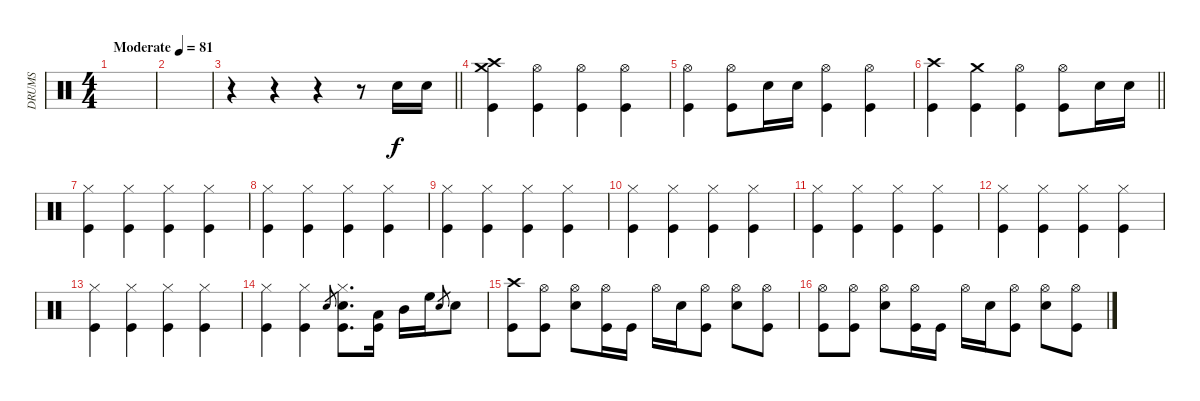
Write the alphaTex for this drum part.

\track ("DRUMS" "DRUMS") {instrument percussion}
\staff {score}
\articulation defaults
\ts (4 4)
\tempo (81 "Moderate")
\clef neutral
\ks c
|
|
\barLineRight lightlight
r.4 r.4 r.4 r.8 "Electric Snare (hit)".16 "Electric Snare (hit)".16 |
("Crash high (hit)" "Crash medium (hit)" "Kick (hit)").4 ("Hi-Hat (open)" "Kick (hit)").4 ("Hi-Hat (open)" "Kick (hit)").4 ("Hi-Hat (open)" "Kick (hit)").4 |
("Hi-Hat (open)" "Kick (hit)").4 ("Hi-Hat (open)" "Kick (hit)").8 "Electric Snare (hit)".16 "Electric Snare (hit)".16 ("Hi-Hat (open)" "Kick (hit)").4 ("Hi-Hat (open)" "Kick (hit)").4 |
\barLineRight lightlight
("Crash high (hit)" "Kick (hit)").4 ("Crash medium (hit)" "Kick (hit)").4 ("Hi-Hat (open)" "Kick (hit)").4 ("Hi-Hat (open)" "Kick (hit)").8 "Electric Snare (hit)".16 "Electric Snare (hit)".16 |
("Kick (hit)" "Hi-Hat (closed)").4 ("Kick (hit)" "Hi-Hat (closed)").4 ("Kick (hit)" "Hi-Hat (closed)").4 ("Kick (hit)" "Hi-Hat (closed)").4 |
("Kick (hit)" "Hi-Hat (closed)").4 ("Kick (hit)" "Hi-Hat (closed)").4 ("Kick (hit)" "Hi-Hat (closed)").4 ("Kick (hit)" "Hi-Hat (closed)").4 |
("Kick (hit)" "Hi-Hat (closed)").4 ("Kick (hit)" "Hi-Hat (closed)").4 ("Kick (hit)" "Hi-Hat (closed)").4 ("Kick (hit)" "Hi-Hat (closed)").4 |
("Kick (hit)" "Hi-Hat (closed)").4 ("Kick (hit)" "Hi-Hat (closed)").4 ("Kick (hit)" "Hi-Hat (closed)").4 ("Kick (hit)" "Hi-Hat (closed)").4 |
("Kick (hit)" "Hi-Hat (closed)").4 ("Kick (hit)" "Hi-Hat (closed)").4 ("Kick (hit)" "Hi-Hat (closed)").4 ("Kick (hit)" "Hi-Hat (closed)").4 |
("Kick (hit)" "Hi-Hat (closed)").4 ("Kick (hit)" "Hi-Hat (closed)").4 ("Kick (hit)" "Hi-Hat (closed)").4 ("Kick (hit)" "Hi-Hat (closed)").4 |
("Kick (hit)" "Hi-Hat (closed)").4 ("Kick (hit)" "Hi-Hat (closed)").4 ("Kick (hit)" "Hi-Hat (closed)").4 ("Kick (hit)" "Hi-Hat (closed)").4 |
("Kick (hit)" "Hi-Hat (closed)").4 ("Kick (hit)" "Hi-Hat (closed)").4 "Electric Snare (hit)".8{gr} ("Kick (hit)" "Hi-Hat (closed)" "Electric Snare (hit)").8{d} ("Low Tom (hit)" "Kick (hit)").16 "Mid Tom (hit)".16 "High Floor Tom (hit)".16 "Electric Snare (hit)".8{gr} "Electric Snare (hit)".8 |
("Crash high (hit)" "Kick (hit)").8 ("Hi-Hat (open)" "Kick (hit)").8 ("Hi-Hat (open)" "Electric Snare (hit)").8 ("Hi-Hat (open)" "Kick (hit)").16 "Kick (hit)".16 "Hi-Hat (open)".16 "Electric Snare (hit)".16 ("Hi-Hat (open)" "Kick (hit)").8 ("Hi-Hat (open)" "Electric Snare (hit)").8 ("Hi-Hat (open)" "Kick (hit)").8 |
("Hi-Hat (open)" "Kick (hit)").8 ("Hi-Hat (open)" "Kick (hit)").8 ("Hi-Hat (open)" "Electric Snare (hit)").8 ("Hi-Hat (open)" "Kick (hit)").16 "Kick (hit)".16 "Hi-Hat (open)".16 "Electric Snare (hit)".16 ("Hi-Hat (open)" "Kick (hit)").8 ("Hi-Hat (open)" "Electric Snare (hit)").8 ("Hi-Hat (open)" "Kick (hit)").8
